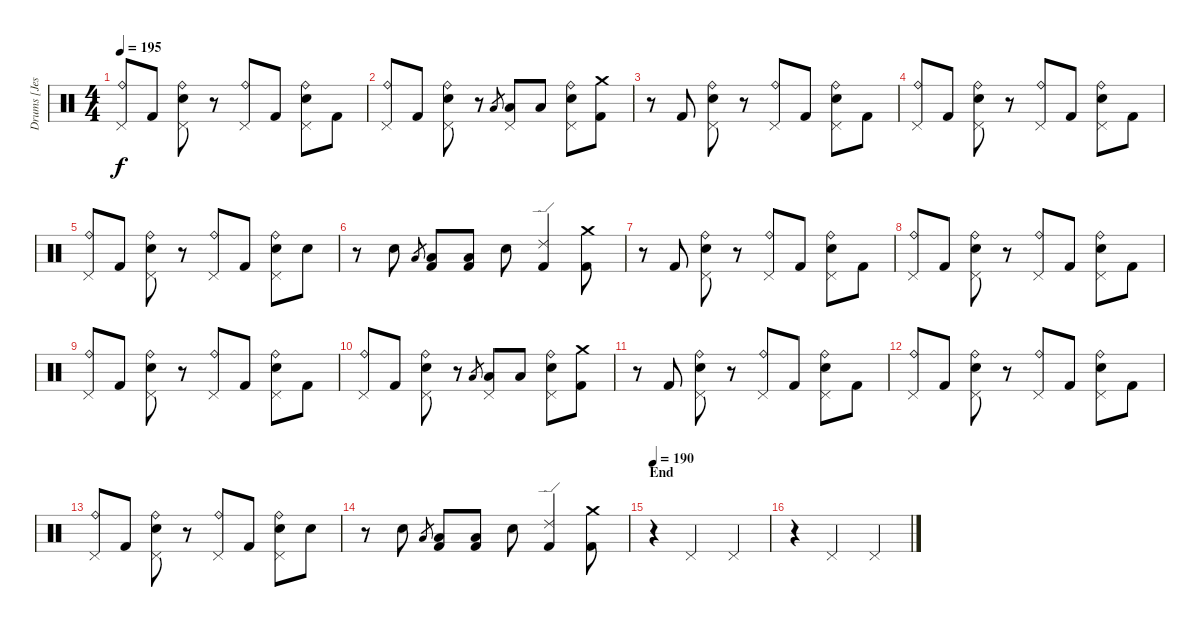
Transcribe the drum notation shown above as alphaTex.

\track ("Drums [Jesse Ingelevics]" "Drums [Jes") {instrument percussion}
\staff {score}
\articulation defaults
\ts (4 4)
\tempo 195
\clef neutral
\ks c
("Ride (bell)" "Pedal Hi-Hat (hit)").8{dy f} "Kick (hit) 2".8 ("Ride (bell)" "Pedal Hi-Hat (hit)" "Electric Snare (hit)").8 r.8 ("Ride (bell)" "Pedal Hi-Hat (hit)").8 "Kick (hit) 2".8 ("Ride (bell)" "Pedal Hi-Hat (hit)" "Electric Snare (hit)").8 "Kick (hit) 2".8 |
("Ride (bell)" "Pedal Hi-Hat (hit)").8 "Kick (hit) 2".8 ("Ride (bell)" "Pedal Hi-Hat (hit)" "Electric Snare (hit)").8 r.8 "Low Tom (hit)".8{gr} ("Pedal Hi-Hat (hit)" "Low Tom (hit)").8 "Low Tom (hit)".8 ("Ride (bell)" "Pedal Hi-Hat (hit)" "Electric Snare (hit)").8 ("Crash medium (hit)" "Kick (hit) 2").8 |
r.8 "Kick (hit) 2".8 ("Ride (bell)" "Pedal Hi-Hat (hit)" "Electric Snare (hit)").8 r.8 ("Ride (bell)" "Pedal Hi-Hat (hit)").8 "Kick (hit) 2".8 ("Ride (bell)" "Pedal Hi-Hat (hit)" "Electric Snare (hit)").8 "Kick (hit) 2".8 |
("Ride (bell)" "Pedal Hi-Hat (hit)").8 "Kick (hit) 2".8 ("Ride (bell)" "Pedal Hi-Hat (hit)" "Electric Snare (hit)").8 r.8 ("Ride (bell)" "Pedal Hi-Hat (hit)").8 "Kick (hit) 2".8 ("Ride (bell)" "Pedal Hi-Hat (hit)" "Electric Snare (hit)").8 "Kick (hit) 2".8 |
("Ride (bell)" "Pedal Hi-Hat (hit)").8 "Kick (hit) 2".8 ("Ride (bell)" "Pedal Hi-Hat (hit)" "Electric Snare (hit)").8 r.8 ("Ride (bell)" "Pedal Hi-Hat (hit)").8 "Kick (hit) 2".8 ("Ride (bell)" "Pedal Hi-Hat (hit)" "Electric Snare (hit)").8 "Electric Snare (hit)".8 |
r.8 "Electric Snare (hit)".8 "Low Tom (hit)".8{gr} ("Low Tom (hit)" "Kick (hit) 2").8 ("Low Tom (hit)" "Kick (hit) 2").8 "Electric Snare (hit)".8 ("Ride (edge) 2" "Kick (hit) 2").4 ("Crash medium (hit)" "Kick (hit) 2").8 |
r.8 "Kick (hit) 2".8 ("Ride (bell)" "Pedal Hi-Hat (hit)" "Electric Snare (hit)").8 r.8 ("Ride (bell)" "Pedal Hi-Hat (hit)").8 "Kick (hit) 2".8 ("Ride (bell)" "Pedal Hi-Hat (hit)" "Electric Snare (hit)").8 "Kick (hit) 2".8 |
("Ride (bell)" "Pedal Hi-Hat (hit)").8 "Kick (hit) 2".8 ("Ride (bell)" "Pedal Hi-Hat (hit)" "Electric Snare (hit)").8 r.8 ("Ride (bell)" "Pedal Hi-Hat (hit)").8 "Kick (hit) 2".8 ("Ride (bell)" "Pedal Hi-Hat (hit)" "Electric Snare (hit)").8 "Kick (hit) 2".8 |
("Ride (bell)" "Pedal Hi-Hat (hit)").8 "Kick (hit) 2".8 ("Ride (bell)" "Pedal Hi-Hat (hit)" "Electric Snare (hit)").8 r.8 ("Ride (bell)" "Pedal Hi-Hat (hit)").8 "Kick (hit) 2".8 ("Ride (bell)" "Pedal Hi-Hat (hit)" "Electric Snare (hit)").8 "Kick (hit) 2".8 |
("Ride (bell)" "Pedal Hi-Hat (hit)").8 "Kick (hit) 2".8 ("Ride (bell)" "Pedal Hi-Hat (hit)" "Electric Snare (hit)").8 r.8 "Low Tom (hit)".8{gr} ("Pedal Hi-Hat (hit)" "Low Tom (hit)").8 "Low Tom (hit)".8 ("Ride (bell)" "Pedal Hi-Hat (hit)" "Electric Snare (hit)").8 ("Crash medium (hit)" "Kick (hit) 2").8 |
r.8 "Kick (hit) 2".8 ("Ride (bell)" "Pedal Hi-Hat (hit)" "Electric Snare (hit)").8 r.8 ("Ride (bell)" "Pedal Hi-Hat (hit)").8 "Kick (hit) 2".8 ("Ride (bell)" "Pedal Hi-Hat (hit)" "Electric Snare (hit)").8 "Kick (hit) 2".8 |
("Ride (bell)" "Pedal Hi-Hat (hit)").8 "Kick (hit) 2".8 ("Ride (bell)" "Pedal Hi-Hat (hit)" "Electric Snare (hit)").8 r.8 ("Ride (bell)" "Pedal Hi-Hat (hit)").8 "Kick (hit) 2".8 ("Ride (bell)" "Pedal Hi-Hat (hit)" "Electric Snare (hit)").8 "Kick (hit) 2".8 |
("Ride (bell)" "Pedal Hi-Hat (hit)").8 "Kick (hit) 2".8 ("Ride (bell)" "Pedal Hi-Hat (hit)" "Electric Snare (hit)").8 r.8 ("Ride (bell)" "Pedal Hi-Hat (hit)").8 "Kick (hit) 2".8 ("Ride (bell)" "Pedal Hi-Hat (hit)" "Electric Snare (hit)").8 "Electric Snare (hit)".8 |
r.8 "Electric Snare (hit)".8 "Low Tom (hit)".8{gr} ("Low Tom (hit)" "Kick (hit) 2").8 ("Low Tom (hit)" "Kick (hit) 2").8 "Electric Snare (hit)".8 ("Ride (edge) 2" "Kick (hit) 2").4 ("Crash medium (hit)" "Kick (hit) 2").8 |
\section ("" "End")
\tempo 190
r.4 "Pedal Hi-Hat (hit)".2 "Pedal Hi-Hat (hit)".4 |
r.4 "Pedal Hi-Hat (hit)".2 "Pedal Hi-Hat (hit)".4
